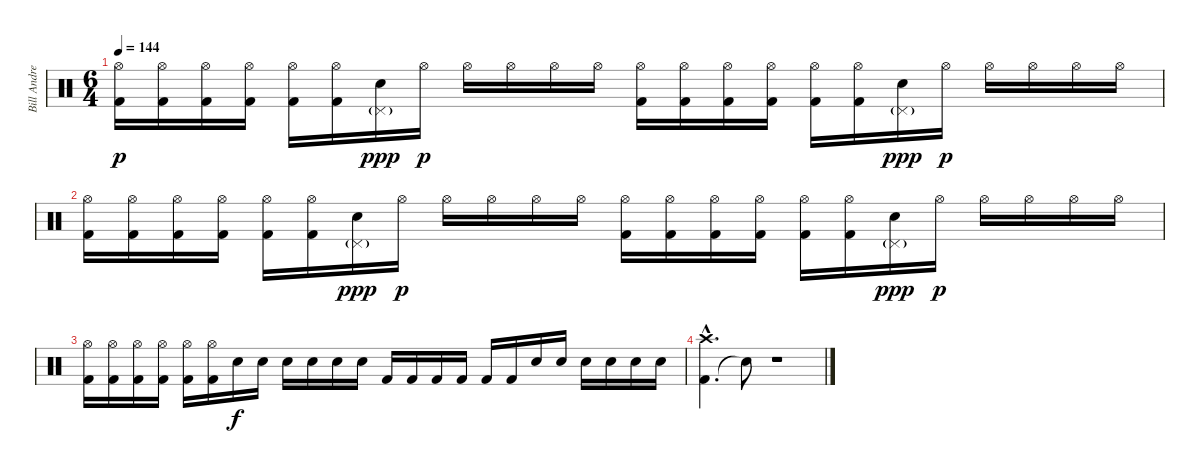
\track ("Bill Andrews" "Bill Andre") {instrument percussion}
\staff {score}
\articulation defaults
\ts (6 4)
\tempo 144
\clef neutral
\ks c
("Kick (hit) 2" "Hi-Hat (open)").16{dy p} ("Kick (hit) 2" "Hi-Hat (open)").16 ("Kick (hit) 2" "Hi-Hat (open)").16 ("Kick (hit) 2" "Hi-Hat (open)").16 ("Kick (hit) 2" "Hi-Hat (open)").16 ("Kick (hit) 2" "Hi-Hat (open)").16 ("Pedal Hi-Hat (hit)"{g} "Snare (hit) 2").16{dy ppp} "Hi-Hat (open)".16{dy p} "Hi-Hat (open)".16 "Hi-Hat (open)".16 "Hi-Hat (open)".16 "Hi-Hat (open)".16 ("Kick (hit) 2" "Hi-Hat (open)").16 ("Kick (hit) 2" "Hi-Hat (open)").16 ("Kick (hit) 2" "Hi-Hat (open)").16 ("Kick (hit) 2" "Hi-Hat (open)").16 ("Kick (hit) 2" "Hi-Hat (open)").16 ("Kick (hit) 2" "Hi-Hat (open)").16 ("Pedal Hi-Hat (hit)"{g} "Snare (hit) 2").16{dy ppp} "Hi-Hat (open)".16{dy p} "Hi-Hat (open)".16 "Hi-Hat (open)".16 "Hi-Hat (open)".16 "Hi-Hat (open)".16 |
("Kick (hit) 2" "Hi-Hat (open)").16 ("Kick (hit) 2" "Hi-Hat (open)").16 ("Kick (hit) 2" "Hi-Hat (open)").16 ("Kick (hit) 2" "Hi-Hat (open)").16 ("Kick (hit) 2" "Hi-Hat (open)").16 ("Kick (hit) 2" "Hi-Hat (open)").16 ("Pedal Hi-Hat (hit)"{g} "Snare (hit) 2").16{dy ppp} "Hi-Hat (open)".16{dy p} "Hi-Hat (open)".16 "Hi-Hat (open)".16 "Hi-Hat (open)".16 "Hi-Hat (open)".16 ("Kick (hit) 2" "Hi-Hat (open)").16 ("Kick (hit) 2" "Hi-Hat (open)").16 ("Kick (hit) 2" "Hi-Hat (open)").16 ("Kick (hit) 2" "Hi-Hat (open)").16 ("Kick (hit) 2" "Hi-Hat (open)").16 ("Kick (hit) 2" "Hi-Hat (open)").16 ("Pedal Hi-Hat (hit)"{g} "Snare (hit) 2").16{dy ppp} "Hi-Hat (open)".16{dy p} "Hi-Hat (open)".16 "Hi-Hat (open)".16 "Hi-Hat (open)".16 "Hi-Hat (open)".16 |
("Kick (hit) 2" "Hi-Hat (open)").16 ("Kick (hit) 2" "Hi-Hat (open)").16 ("Kick (hit) 2" "Hi-Hat (open)").16 ("Kick (hit) 2" "Hi-Hat (open)").16 ("Kick (hit) 2" "Hi-Hat (open)").16 ("Kick (hit) 2" "Hi-Hat (open)").16 "Snare (hit) 2".16{dy f} "Snare (hit) 2".16 "Snare (hit) 2".16 "Snare (hit) 2".16 "Snare (hit) 2".16 "Snare (hit) 2".16 "Kick (hit) 2".16 "Kick (hit) 2".16 "Kick (hit) 2".16 "Kick (hit) 2".16 "Kick (hit) 2".16 "Kick (hit) 2".16 "Snare (hit) 2".16 "Snare (hit) 2".16 "Snare (hit) 2".16 "Snare (hit) 2".16 "Snare (hit) 2".16 "Snare (hit) 2".16 |
("Kick (hit) 2"{hac} "Crash high (hit)"{hac}).4{d} "Snare (hit)"{t}.8 r.1
